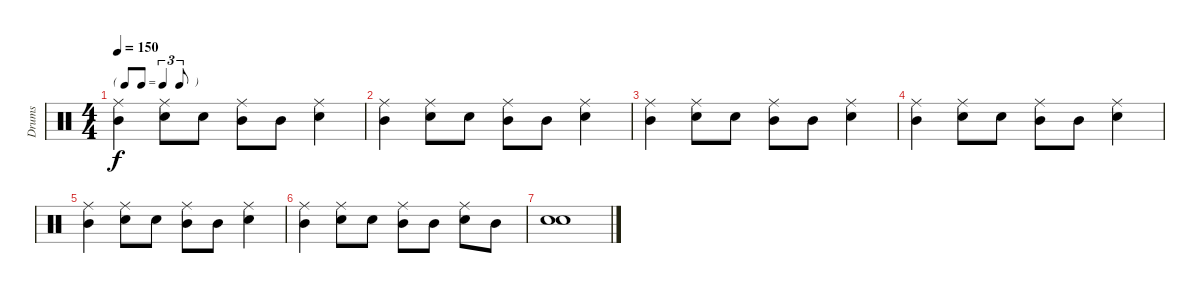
\track ("Drums" "Drums") {instrument percussion}
\staff {score}
\articulation defaults
\ts (4 4)
\tf triplet8th
\tempo 150
\clef neutral
\ks c
("Mid Tom (hit)" "Ride (middle)").4{dy f} ("Snare (hit) 2" "Ride (middle)").8 "Snare (hit) 2".8 ("Mid Tom (hit)" "Ride (middle)").8 "Mid Tom (hit)".8 ("Snare (hit) 2" "Ride (middle)").4 |
("Mid Tom (hit)" "Ride (middle)").4 ("Snare (hit) 2" "Ride (middle)").8 "Snare (hit) 2".8 ("Mid Tom (hit)" "Ride (middle)").8 "Mid Tom (hit)".8 ("Snare (hit) 2" "Ride (middle)").4 |
("Mid Tom (hit)" "Ride (middle)").4 ("Snare (hit) 2" "Ride (middle)").8 "Snare (hit) 2".8 ("Mid Tom (hit)" "Ride (middle)").8 "Mid Tom (hit)".8 ("Snare (hit) 2" "Ride (middle)").4 |
("Mid Tom (hit)" "Ride (middle)").4 ("Snare (hit) 2" "Ride (middle)").8 "Snare (hit) 2".8 ("Mid Tom (hit)" "Ride (middle)").8 "Mid Tom (hit)".8 ("Snare (hit) 2" "Ride (middle)").4 |
("Mid Tom (hit)" "Ride (middle)").4 ("Snare (hit) 2" "Ride (middle)").8 "Snare (hit) 2".8 ("Mid Tom (hit)" "Ride (middle)").8 "Mid Tom (hit)".8 ("Snare (hit) 2" "Ride (middle)").4 |
("Mid Tom (hit)" "Ride (middle)").4 ("Snare (hit) 2" "Ride (middle)").8 "Snare (hit) 2".8 ("Mid Tom (hit)" "Ride (middle)").8 "Mid Tom (hit)".8 ("Snare (hit) 2" "Ride (middle)").8 "Mid Tom (hit)".8 |
("Snare (hit) 2" "Electric Snare (hit)").1
